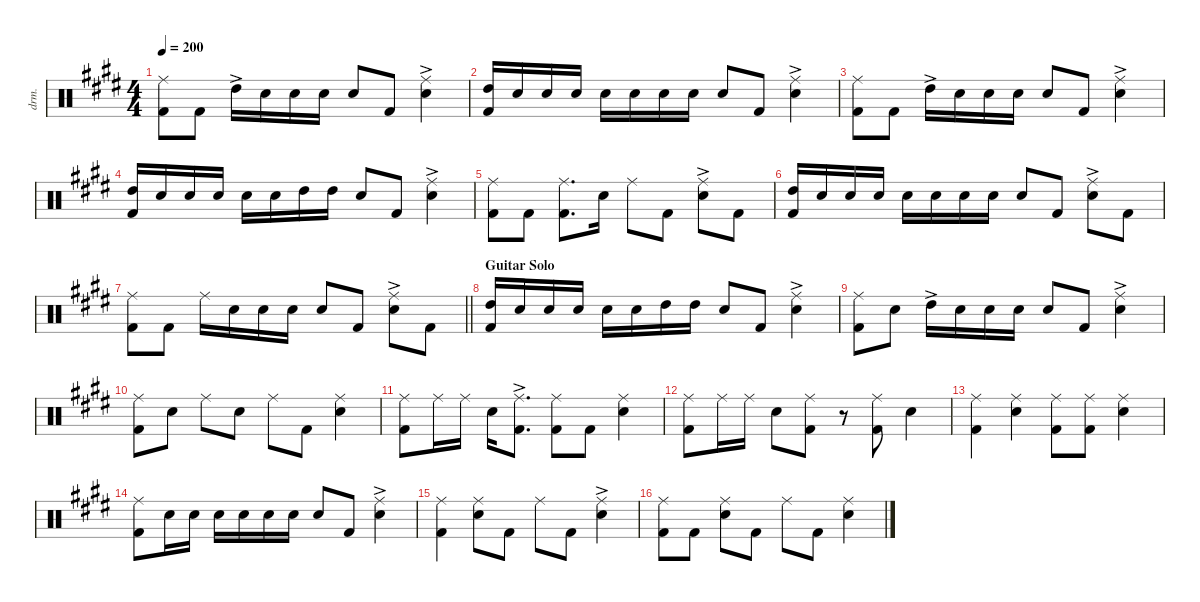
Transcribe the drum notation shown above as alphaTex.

\defaultSystemsLayout 4
\hideDynamics
\bracketExtendMode nobrackets
\otherSystemsTrackNameOrientation horizontal
\track ("Mitch" "drm.") {instrument percussion}
\staff {score}
\articulation defaults
\ts (4 4)
\tempo 200
\clef neutral
\ks e
("Ride (middle)"{acc forcenatural} "Kick (hit) 2"{acc forcenatural}).8{dy ff beam Down} "Kick (hit) 2"{acc forcenatural}.8{beam Down} "High Tom (hit)"{ac acc forcenatural}.16{beam Down} "Snare (hit) 2"{acc forcenatural}.16{beam Down} "Snare (hit) 2"{acc forcenatural}.16{beam Down} "Snare (hit) 2"{acc forcenatural}.16{beam Down} "Snare (hit) 2"{acc forcenatural}.8{beam Up} "Kick (hit) 2"{acc forcenatural}.8{beam Up} ("Ride (middle)"{acc forcenatural} "Snare (hit) 2"{ac acc forcenatural}).4{beam Down} |
("High Tom (hit)"{acc forcenatural} "Kick (hit) 2"{acc forcenatural}).16{beam Up} "Snare (hit) 2"{acc forcenatural}.16{beam Up} "Snare (hit) 2"{acc forcenatural}.16{beam Up} "Snare (hit) 2"{acc forcenatural}.16{beam Up} "Snare (hit) 2"{acc forcenatural}.16{beam Down} "Snare (hit) 2"{acc forcenatural}.16{beam Down} "Snare (hit) 2"{acc forcenatural}.16{beam Down} "Snare (hit) 2"{acc forcenatural}.16{beam Down} "Snare (hit) 2"{acc forcenatural}.8{beam Up} "Kick (hit) 2"{acc forcenatural}.8{beam Up} ("Ride (middle)"{acc forcenatural} "Snare (hit) 2"{ac acc forcenatural}).4{beam Down} |
("Ride (middle)"{acc forcenatural} "Kick (hit) 2"{acc forcenatural}).8{beam Down} "Kick (hit) 2"{acc forcenatural}.8{beam Down} "High Tom (hit)"{ac acc forcenatural}.16{beam Down} "Snare (hit) 2"{acc forcenatural}.16{beam Down} "Snare (hit) 2"{acc forcenatural}.16{beam Down} "Snare (hit) 2"{acc forcenatural}.16{beam Down} "Snare (hit) 2"{acc forcenatural}.8{beam Up} "Kick (hit) 2"{acc forcenatural}.8{beam Up} ("Ride (middle)"{acc forcenatural} "Snare (hit) 2"{ac acc forcenatural}).4{beam Down} |
("High Tom (hit)"{acc forcenatural} "Kick (hit) 2"{acc forcenatural}).16{beam Up} "Snare (hit) 2"{acc forcenatural}.16{beam Up} "Snare (hit) 2"{acc forcenatural}.16{beam Up} "Snare (hit) 2"{acc forcenatural}.16{beam Up} "Snare (hit) 2"{acc forcenatural}.16{beam Down} "Snare (hit) 2"{acc forcenatural}.16{beam Down} "High Tom (hit)"{acc forcenatural}.16{beam Down} "High Tom (hit)"{acc forcenatural}.16{beam Down} "Snare (hit) 2"{acc forcenatural}.8{beam Up} "Kick (hit) 2"{acc forcenatural}.8{beam Up} ("Ride (middle)"{acc forcenatural} "Snare (hit) 2"{ac acc forcenatural}).4{beam Down} |
("Ride (middle)"{acc forcenatural} "Kick (hit) 2"{acc forcenatural}).8{beam Down} "Kick (hit) 2"{acc forcenatural}.8{beam Down} ("Ride (middle)"{acc forcenatural} "Kick (hit) 2"{acc forcenatural}).8{d beam Down} "Snare (hit) 2"{acc forcenatural}.16{beam Down} "Ride (middle)"{acc forcenatural}.8{beam Down} "Kick (hit) 2"{acc forcenatural}.8{beam Down} ("Ride (middle)"{acc forcenatural} "Snare (hit) 2"{ac acc forcenatural}).8{beam Down} "Kick (hit) 2"{acc forcenatural}.8{beam Down} |
("High Tom (hit)"{acc forcenatural} "Kick (hit) 2"{acc forcenatural}).16{beam Up} "Snare (hit) 2"{acc forcenatural}.16{beam Up} "Snare (hit) 2"{acc forcenatural}.16{beam Up} "Snare (hit) 2"{acc forcenatural}.16{beam Up} "Snare (hit) 2"{acc forcenatural}.16{beam Down} "Snare (hit) 2"{acc forcenatural}.16{beam Down} "Snare (hit) 2"{acc forcenatural}.16{beam Down} "Snare (hit) 2"{acc forcenatural}.16{beam Down} "Snare (hit) 2"{acc forcenatural}.8{beam Up} "Kick (hit) 2"{acc forcenatural}.8{beam Up} ("Ride (middle)"{acc forcenatural} "Snare (hit) 2"{ac acc forcenatural}).8{beam Down} "Kick (hit) 2"{acc forcenatural}.8{beam Down} |
\barLineRight lightlight
("Ride (middle)"{acc forcenatural} "Kick (hit) 2"{acc forcenatural}).8{beam Down} "Kick (hit) 2"{acc forcenatural}.8{beam Down} "Ride (middle)"{acc forcenatural}.16{beam Down} "Snare (hit) 2"{acc forcenatural}.16{beam Down} "Snare (hit) 2"{acc forcenatural}.16{beam Down} "Snare (hit) 2"{acc forcenatural}.16{beam Down} "Snare (hit) 2"{acc forcenatural}.8{beam Up} "Kick (hit) 2"{acc forcenatural}.8{beam Up} ("Ride (middle)"{acc forcenatural} "Snare (hit) 2"{ac acc forcenatural}).8{beam Down} "Kick (hit) 2"{acc forcenatural}.8{beam Down} |
\section ("" "Guitar Solo")
("High Tom (hit)"{acc forcenatural} "Kick (hit) 2"{acc forcenatural}).16{beam Up} "Snare (hit) 2"{acc forcenatural}.16{beam Up} "Snare (hit) 2"{acc forcenatural}.16{beam Up} "Snare (hit) 2"{acc forcenatural}.16{beam Up} "Snare (hit) 2"{acc forcenatural}.16{beam Down} "Snare (hit) 2"{acc forcenatural}.16{beam Down} "High Tom (hit)"{acc forcenatural}.16{beam Down} "High Tom (hit)"{acc forcenatural}.16{beam Down} "Snare (hit) 2"{acc forcenatural}.8{beam Up} "Kick (hit) 2"{acc forcenatural}.8{beam Up} ("Ride (middle)"{acc forcenatural} "Snare (hit) 2"{ac acc forcenatural}).4{beam Down} |
("Ride (middle)"{acc forcenatural} "Kick (hit) 2"{acc forcenatural}).8{beam Down} "Snare (hit) 2"{acc forcenatural}.8{beam Down} "High Tom (hit)"{ac acc forcenatural}.16{beam Down} "Snare (hit) 2"{acc forcenatural}.16{beam Down} "Snare (hit) 2"{acc forcenatural}.16{beam Down} "Snare (hit) 2"{acc forcenatural}.16{beam Down} "Snare (hit) 2"{acc forcenatural}.8{beam Up} "Kick (hit) 2"{acc forcenatural}.8{beam Up} ("Ride (middle)"{acc forcenatural} "Snare (hit) 2"{ac acc forcenatural}).4{beam Down} |
("Ride (middle)"{acc forcenatural} "Kick (hit) 2"{acc forcenatural}).8{beam Down} "Snare (hit) 2"{acc forcenatural}.8{beam Down} "Ride (middle)"{acc forcenatural}.8{beam Down} "Snare (hit) 2"{acc forcenatural}.8{beam Down} "Ride (middle)"{acc forcenatural}.8{beam Down} "Kick (hit) 2"{acc forcenatural}.8{beam Down} ("Ride (middle)"{acc forcenatural} "Snare (hit) 2"{acc forcenatural}).4{beam Down} |
("Ride (middle)"{acc forcenatural} "Kick (hit) 2"{acc forcenatural}).8{beam Down} "Ride (middle)"{acc forcenatural}.16{beam Down} "Ride (middle)"{acc forcenatural}.16{beam Down} "Snare (hit) 2"{acc forcenatural}.16{beam Down} ("Ride (middle)"{ac acc forcenatural} "Kick (hit) 2"{acc forcenatural}).8{d beam Down} ("Ride (middle)"{acc forcenatural} "Kick (hit) 2"{acc forcenatural}).8{beam Down} "Kick (hit) 2"{acc forcenatural}.8{beam Down} ("Ride (middle)"{acc forcenatural} "Snare (hit) 2"{acc forcenatural}).4{beam Down} |
("Ride (middle)"{acc forcenatural} "Kick (hit) 2"{acc forcenatural}).8{beam Down} "Ride (middle)"{acc forcenatural}.16{beam Down} "Ride (middle)"{acc forcenatural}.16{beam Down} "Snare (hit) 2"{acc forcenatural}.8{beam Down} ("Ride (middle)"{acc forcenatural} "Kick (hit) 2"{acc forcenatural}).8{beam Down} r.8{beam Down} ("Ride (middle)"{acc forcenatural} "Kick (hit) 2"{acc forcenatural}).8{beam Down} "Snare (hit) 2"{acc forcenatural}.4{beam Down} |
("Ride (middle)"{acc forcenatural} "Kick (hit) 2"{acc forcenatural}).4{beam Down} ("Ride (middle)"{acc forcenatural} "Snare (hit) 2"{acc forcenatural}).4{beam Down} ("Ride (middle)"{acc forcenatural} "Kick (hit) 2"{acc forcenatural}).8{beam Down} ("Ride (middle)"{acc forcenatural} "Kick (hit) 2"{acc forcenatural}).8{beam Down} ("Ride (middle)"{acc forcenatural} "Snare (hit) 2"{acc forcenatural}).4{beam Down} |
("Ride (middle)"{acc forcenatural} "Kick (hit) 2"{acc forcenatural}).8{beam Down} "Snare (hit) 2"{acc forcenatural}.16{beam Down} "Snare (hit) 2"{acc forcenatural}.16{beam Down} "Snare (hit) 2"{acc forcenatural}.16{beam Down} "Snare (hit) 2"{acc forcenatural}.16{beam Down} "Snare (hit) 2"{acc forcenatural}.16{beam Down} "Snare (hit) 2"{acc forcenatural}.16{beam Down} "Snare (hit) 2"{acc forcenatural}.8{beam Up} "Kick (hit) 2"{acc forcenatural}.8{beam Up} ("Ride (middle)"{ac acc forcenatural} "Snare (hit) 2"{ac acc forcenatural}).4{beam Down} |
("Ride (middle)"{acc forcenatural} "Kick (hit) 2"{acc forcenatural}).4{beam Down} ("Ride (middle)"{acc forcenatural} "Snare (hit) 2"{acc forcenatural}).8{beam Down} "Kick (hit) 2"{acc forcenatural}.8{beam Down} "Ride (middle)"{acc forcenatural}.8{beam Down} "Kick (hit) 2"{acc forcenatural}.8{beam Down} ("Ride (middle)"{acc forcenatural} "Snare (hit) 2"{ac acc forcenatural}).4{beam Down} |
("Ride (middle)"{acc forcenatural} "Kick (hit) 2"{acc forcenatural}).8{beam Down} "Kick (hit) 2"{acc forcenatural}.8{beam Down} ("Ride (middle)"{acc forcenatural} "Snare (hit) 2"{acc forcenatural}).8{beam Down} "Kick (hit) 2"{acc forcenatural}.8{beam Down} "Ride (middle)"{acc forcenatural}.8{beam Down} "Kick (hit) 2"{acc forcenatural}.8{beam Down} ("Ride (middle)"{acc forcenatural} "Snare (hit) 2"{acc forcenatural}).4{beam Down}
